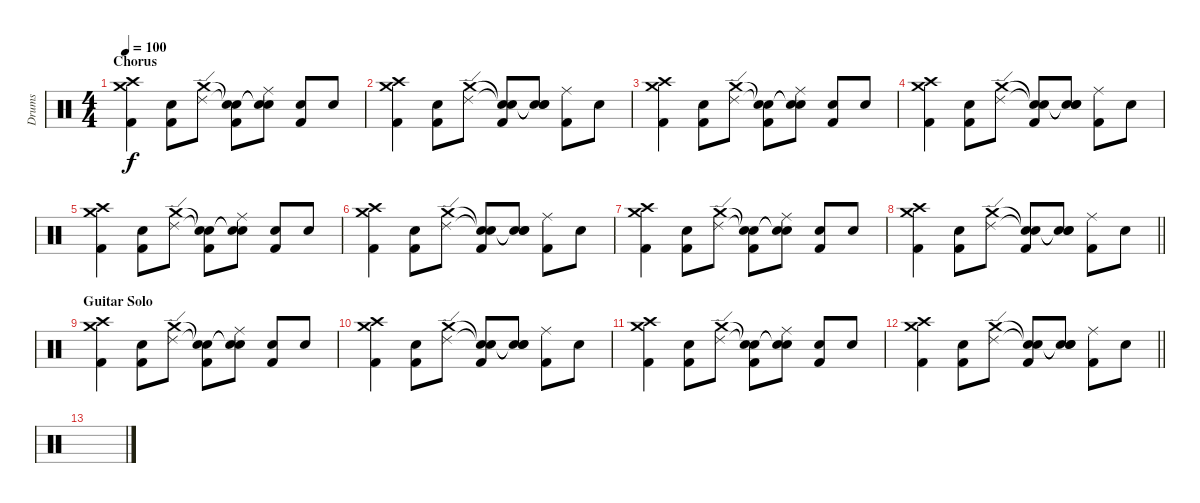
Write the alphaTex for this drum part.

\track ("Drums" "Drums") {instrument percussion}
\staff {score}
\articulation defaults
\ts (4 4)
\section ("" "Chorus")
\tempo 100
\clef neutral
\ks c
("Crash medium (hit)" "Crash high (hit)" "Kick (hit) 2").4{dy f} ("Snare (hit) 2" "Kick (hit) 2").8 ("Crash medium (hit)" "Ride (edge) 2").8 ("Snare (hit)"{t} "Snare (hit)"{t} "Kick (hit) 2").8 ("Snare (hit)"{t} "Snare (hit)"{t} "Ride (middle)").8 ("Snare (hit) 2" "Kick (hit) 2").8 "Snare (hit) 2".8 |
("Crash medium (hit)" "Crash high (hit)" "Kick (hit) 2").4 ("Snare (hit) 2" "Kick (hit) 2").8 ("Crash medium (hit)" "Ride (edge) 2").8 ("Snare (hit)"{t} "Snare (hit)"{t} "Kick (hit) 2").8 ("Snare (hit)"{t} "Snare (hit)"{t} "Snare (hit) 2").8 ("Ride (middle)" "Kick (hit) 2").8 "Snare (hit) 2".8 |
("Crash medium (hit)" "Crash high (hit)" "Kick (hit) 2").4 ("Snare (hit) 2" "Kick (hit) 2").8 ("Crash medium (hit)" "Ride (edge) 2").8 ("Snare (hit)"{t} "Snare (hit)"{t} "Kick (hit) 2").8 ("Snare (hit)"{t} "Snare (hit)"{t} "Ride (middle)").8 ("Snare (hit) 2" "Kick (hit) 2").8 "Snare (hit) 2".8 |
("Crash medium (hit)" "Crash high (hit)" "Kick (hit) 2").4 ("Snare (hit) 2" "Kick (hit) 2").8 ("Crash medium (hit)" "Ride (edge) 2").8 ("Snare (hit)"{t} "Snare (hit)"{t} "Kick (hit) 2").8 ("Snare (hit)"{t} "Snare (hit)"{t} "Snare (hit) 2").8 ("Ride (middle)" "Kick (hit) 2").8 "Snare (hit) 2".8 |
("Crash medium (hit)" "Crash high (hit)" "Kick (hit) 2").4 ("Snare (hit) 2" "Kick (hit) 2").8 ("Crash medium (hit)" "Ride (edge) 2").8 ("Snare (hit)"{t} "Snare (hit)"{t} "Kick (hit) 2").8 ("Snare (hit)"{t} "Snare (hit)"{t} "Ride (middle)").8 ("Snare (hit) 2" "Kick (hit) 2").8 "Snare (hit) 2".8 |
("Crash medium (hit)" "Crash high (hit)" "Kick (hit) 2").4 ("Snare (hit) 2" "Kick (hit) 2").8 ("Crash medium (hit)" "Ride (edge) 2").8 ("Snare (hit)"{t} "Snare (hit)"{t} "Kick (hit) 2").8 ("Snare (hit)"{t} "Snare (hit)"{t} "Snare (hit) 2").8 ("Ride (middle)" "Kick (hit) 2").8 "Snare (hit) 2".8 |
("Crash medium (hit)" "Crash high (hit)" "Kick (hit) 2").4 ("Snare (hit) 2" "Kick (hit) 2").8 ("Crash medium (hit)" "Ride (edge) 2").8 ("Snare (hit)"{t} "Snare (hit)"{t} "Kick (hit) 2").8 ("Snare (hit)"{t} "Snare (hit)"{t} "Ride (middle)").8 ("Snare (hit) 2" "Kick (hit) 2").8 "Snare (hit) 2".8 |
\barLineRight lightlight
("Crash medium (hit)" "Crash high (hit)" "Kick (hit) 2").4 ("Snare (hit) 2" "Kick (hit) 2").8 ("Crash medium (hit)" "Ride (edge) 2").8 ("Snare (hit)"{t} "Snare (hit)"{t} "Kick (hit) 2").8 ("Snare (hit)"{t} "Snare (hit)"{t} "Snare (hit) 2").8 ("Ride (middle)" "Kick (hit) 2").8 "Snare (hit) 2".8 |
\section ("" "Guitar Solo")
("Crash medium (hit)" "Crash high (hit)" "Kick (hit) 2").4 ("Snare (hit) 2" "Kick (hit) 2").8 ("Crash medium (hit)" "Ride (edge) 2").8 ("Snare (hit)"{t} "Snare (hit)"{t} "Kick (hit) 2").8 ("Snare (hit)"{t} "Snare (hit)"{t} "Ride (middle)").8 ("Snare (hit) 2" "Kick (hit) 2").8 "Snare (hit) 2".8 |
("Crash medium (hit)" "Crash high (hit)" "Kick (hit) 2").4 ("Snare (hit) 2" "Kick (hit) 2").8 ("Crash medium (hit)" "Ride (edge) 2").8 ("Snare (hit)"{t} "Snare (hit)"{t} "Kick (hit) 2").8 ("Snare (hit)"{t} "Snare (hit)"{t} "Snare (hit) 2").8 ("Ride (middle)" "Kick (hit) 2").8 "Snare (hit) 2".8 |
("Crash medium (hit)" "Crash high (hit)" "Kick (hit) 2").4 ("Snare (hit) 2" "Kick (hit) 2").8 ("Crash medium (hit)" "Ride (edge) 2").8 ("Snare (hit)"{t} "Snare (hit)"{t} "Kick (hit) 2").8 ("Snare (hit)"{t} "Snare (hit)"{t} "Ride (middle)").8 ("Snare (hit) 2" "Kick (hit) 2").8 "Snare (hit) 2".8 |
\barLineRight lightlight
("Crash medium (hit)" "Crash high (hit)" "Kick (hit) 2").4 ("Snare (hit) 2" "Kick (hit) 2").8 ("Crash medium (hit)" "Ride (edge) 2").8 ("Snare (hit)"{t} "Snare (hit)"{t} "Kick (hit) 2").8 ("Snare (hit)"{t} "Snare (hit)"{t} "Snare (hit) 2").8 ("Ride (middle)" "Kick (hit) 2").8 "Snare (hit) 2".8 |
\section ("" "")
